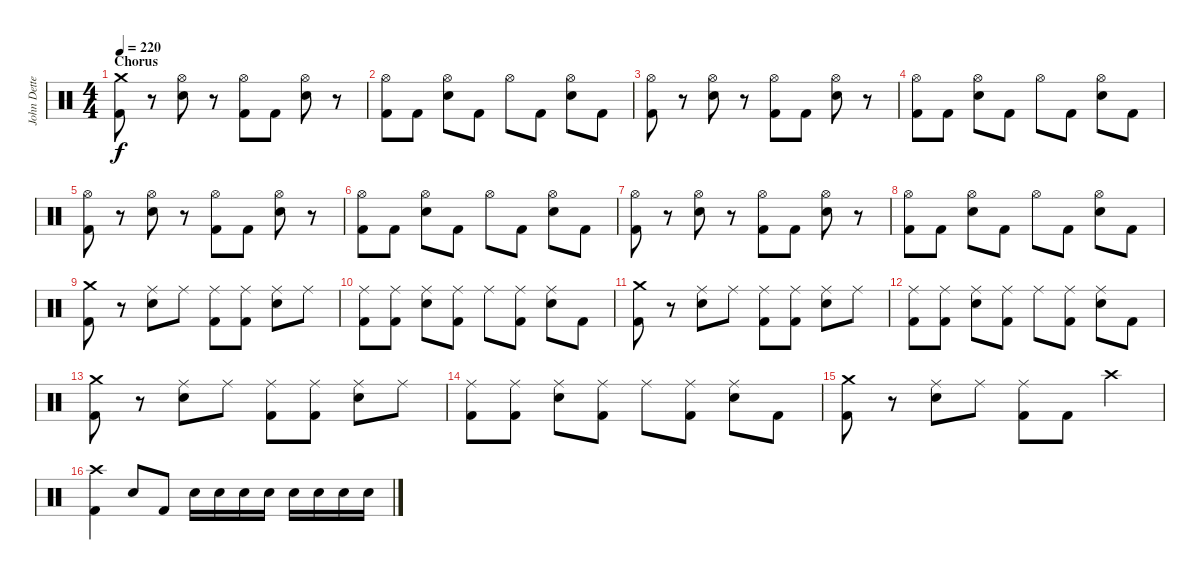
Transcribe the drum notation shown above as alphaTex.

\track ("John Dette" "John Dette") {instrument percussion}
\staff {score}
\articulation defaults
\ts (4 4)
\section ("" "Chorus")
\tempo 220
\clef neutral
\ks c
("Crash medium (hit)" "Kick (hit) 2").8{dy f} r.8 ("Hi-Hat (open)" "Snare (hit) 2").8 r.8 ("Hi-Hat (open)" "Kick (hit) 2").8 "Kick (hit) 2".8 ("Hi-Hat (open)" "Snare (hit) 2").8 r.8 |
("Hi-Hat (open)" "Kick (hit) 2").8 "Kick (hit) 2".8 ("Hi-Hat (open)" "Snare (hit) 2").8 "Kick (hit) 2".8 "Hi-Hat (open)".8 "Kick (hit) 2".8 ("Hi-Hat (open)" "Snare (hit) 2").8 "Kick (hit) 2".8 |
("Hi-Hat (open)" "Kick (hit) 2").8 r.8 ("Hi-Hat (open)" "Snare (hit) 2").8 r.8 ("Hi-Hat (open)" "Kick (hit) 2").8 "Kick (hit) 2".8 ("Hi-Hat (open)" "Snare (hit) 2").8 r.8 |
("Hi-Hat (open)" "Kick (hit) 2").8 "Kick (hit) 2".8 ("Hi-Hat (open)" "Snare (hit) 2").8 "Kick (hit) 2".8 "Hi-Hat (open)".8 "Kick (hit) 2".8 ("Hi-Hat (open)" "Snare (hit) 2").8 "Kick (hit) 2".8 |
("Hi-Hat (open)" "Kick (hit) 2").8 r.8 ("Hi-Hat (open)" "Snare (hit) 2").8 r.8 ("Hi-Hat (open)" "Kick (hit) 2").8 "Kick (hit) 2".8 ("Hi-Hat (open)" "Snare (hit) 2").8 r.8 |
("Hi-Hat (open)" "Kick (hit) 2").8 "Kick (hit) 2".8 ("Hi-Hat (open)" "Snare (hit) 2").8 "Kick (hit) 2".8 "Hi-Hat (open)".8 "Kick (hit) 2".8 ("Hi-Hat (open)" "Snare (hit) 2").8 "Kick (hit) 2".8 |
("Hi-Hat (open)" "Kick (hit) 2").8 r.8 ("Hi-Hat (open)" "Snare (hit) 2").8 r.8 ("Hi-Hat (open)" "Kick (hit) 2").8 "Kick (hit) 2".8 ("Hi-Hat (open)" "Snare (hit) 2").8 r.8 |
("Hi-Hat (open)" "Kick (hit) 2").8 "Kick (hit) 2".8 ("Hi-Hat (open)" "Snare (hit) 2").8 "Kick (hit) 2".8 "Hi-Hat (open)".8 "Kick (hit) 2".8 ("Hi-Hat (open)" "Snare (hit) 2").8 "Kick (hit) 2".8 |
("Crash medium (hit)" "Kick (hit) 2").8 r.8 ("Ride (middle)" "Snare (hit) 2").8 "Ride (middle)".8 ("Ride (middle)" "Kick (hit) 2").8 ("Ride (middle)" "Kick (hit) 2").8 ("Ride (middle)" "Snare (hit) 2").8 "Ride (middle)".8 |
("Ride (middle)" "Kick (hit) 2").8 ("Ride (middle)" "Kick (hit) 2").8 ("Ride (middle)" "Snare (hit) 2").8 ("Ride (middle)" "Kick (hit) 2").8 "Ride (middle)".8 ("Ride (middle)" "Kick (hit) 2").8 ("Ride (middle)" "Snare (hit) 2").8 "Kick (hit) 2".8 |
("Crash medium (hit)" "Kick (hit) 2").8 r.8 ("Ride (middle)" "Snare (hit) 2").8 "Ride (middle)".8 ("Ride (middle)" "Kick (hit) 2").8 ("Ride (middle)" "Kick (hit) 2").8 ("Ride (middle)" "Snare (hit) 2").8 "Ride (middle)".8 |
("Ride (middle)" "Kick (hit) 2").8 ("Ride (middle)" "Kick (hit) 2").8 ("Ride (middle)" "Snare (hit) 2").8 ("Ride (middle)" "Kick (hit) 2").8 "Ride (middle)".8 ("Ride (middle)" "Kick (hit) 2").8 ("Ride (middle)" "Snare (hit) 2").8 "Kick (hit) 2".8 |
("Crash medium (hit)" "Kick (hit) 2").8 r.8 ("Ride (middle)" "Snare (hit) 2").8 "Ride (middle)".8 ("Ride (middle)" "Kick (hit) 2").8 ("Ride (middle)" "Kick (hit) 2").8 ("Ride (middle)" "Snare (hit) 2").8 "Ride (middle)".8 |
("Ride (middle)" "Kick (hit) 2").8 ("Ride (middle)" "Kick (hit) 2").8 ("Ride (middle)" "Snare (hit) 2").8 ("Ride (middle)" "Kick (hit) 2").8 "Ride (middle)".8 ("Ride (middle)" "Kick (hit) 2").8 ("Ride (middle)" "Snare (hit) 2").8 "Kick (hit) 2".8 |
("Crash medium (hit)" "Kick (hit) 2").8 r.8 ("Ride (middle)" "Snare (hit) 2").8 "Ride (middle)".8 ("Ride (middle)" "Kick (hit) 2").8 "Kick (hit) 2".8 "Crash high (hit)".4 |
("Crash high (hit)" "Kick (hit) 2").4 "Snare (hit) 2".8 "Kick (hit) 2".8 "Snare (hit) 2".16 "Snare (hit) 2".16 "Snare (hit) 2".16 "Snare (hit) 2".16 "Snare (hit) 2".16 "Snare (hit) 2".16 "Snare (hit) 2".16 "Snare (hit) 2".16
